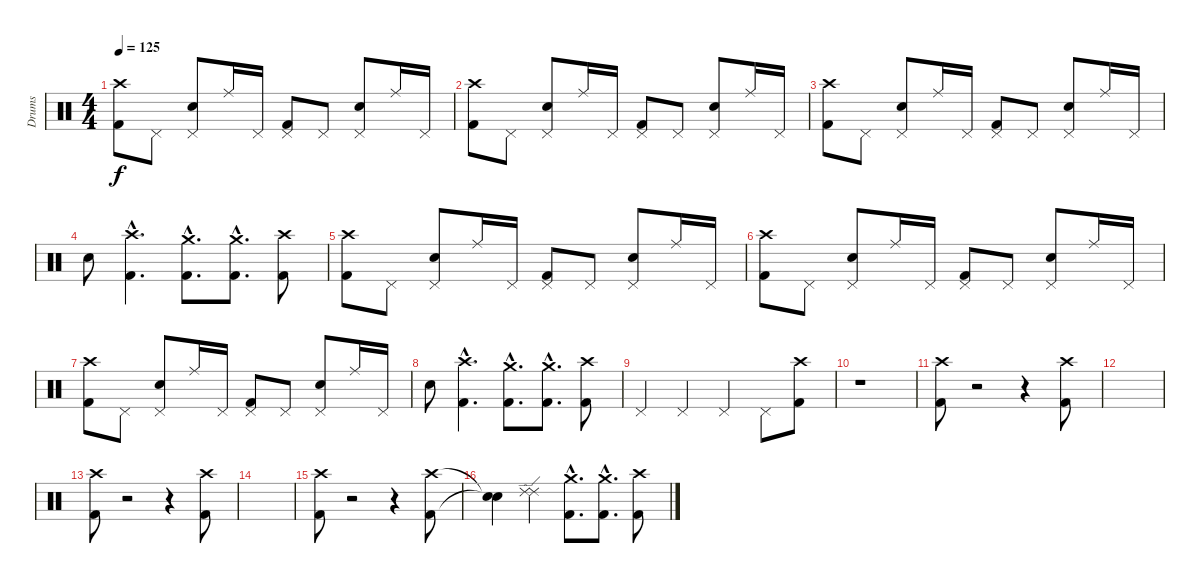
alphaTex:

\track ("Drums" "Drums") {instrument percussion}
\staff {score}
\articulation defaults
\ts (4 4)
\tempo 125
\clef neutral
\ks c
("Crash high (hit)" "Kick (hit) 2").8{dy f} "Pedal Hi-Hat (hit)".8 ("Pedal Hi-Hat (hit)" "Snare (hit) 2").8 "Ride (middle)".16 "Pedal Hi-Hat (hit)".16 ("Pedal Hi-Hat (hit)" "Kick (hit) 2").8 "Pedal Hi-Hat (hit)".8 ("Pedal Hi-Hat (hit)" "Snare (hit) 2").8 "Ride (middle)".16 "Pedal Hi-Hat (hit)".16 |
("Crash high (hit)" "Kick (hit) 2").8 "Pedal Hi-Hat (hit)".8 ("Pedal Hi-Hat (hit)" "Snare (hit) 2").8 "Ride (middle)".16 "Pedal Hi-Hat (hit)".16 ("Pedal Hi-Hat (hit)" "Kick (hit) 2").8 "Pedal Hi-Hat (hit)".8 ("Pedal Hi-Hat (hit)" "Snare (hit) 2").8 "Ride (middle)".16 "Pedal Hi-Hat (hit)".16 |
("Crash high (hit)" "Kick (hit) 2").8 "Pedal Hi-Hat (hit)".8 ("Pedal Hi-Hat (hit)" "Snare (hit) 2").8 "Ride (middle)".16 "Pedal Hi-Hat (hit)".16 ("Pedal Hi-Hat (hit)" "Kick (hit) 2").8 "Pedal Hi-Hat (hit)".8 ("Pedal Hi-Hat (hit)" "Snare (hit) 2").8 "Ride (middle)".16 "Pedal Hi-Hat (hit)".16 |
"Snare (hit) 2".8 ("Crash high (hit)"{hac} "Kick (hit) 2"{hac}).4{d} ("Crash medium (hit)"{hac} "Kick (hit) 2"{hac}).8{d} ("Crash medium (hit)"{hac} "Kick (hit) 2"{hac}).8{d} ("Crash high (hit)" "Kick (hit) 2").8 |
("Crash high (hit)" "Kick (hit) 2").8 "Pedal Hi-Hat (hit)".8 ("Pedal Hi-Hat (hit)" "Snare (hit) 2").8 "Ride (middle)".16 "Pedal Hi-Hat (hit)".16 ("Pedal Hi-Hat (hit)" "Kick (hit) 2").8 "Pedal Hi-Hat (hit)".8 ("Pedal Hi-Hat (hit)" "Snare (hit) 2").8 "Ride (middle)".16 "Pedal Hi-Hat (hit)".16 |
("Crash high (hit)" "Kick (hit) 2").8 "Pedal Hi-Hat (hit)".8 ("Pedal Hi-Hat (hit)" "Snare (hit) 2").8 "Ride (middle)".16 "Pedal Hi-Hat (hit)".16 ("Pedal Hi-Hat (hit)" "Kick (hit) 2").8 "Pedal Hi-Hat (hit)".8 ("Pedal Hi-Hat (hit)" "Snare (hit) 2").8 "Ride (middle)".16 "Pedal Hi-Hat (hit)".16 |
("Crash high (hit)" "Kick (hit) 2").8 "Pedal Hi-Hat (hit)".8 ("Pedal Hi-Hat (hit)" "Snare (hit) 2").8 "Ride (middle)".16 "Pedal Hi-Hat (hit)".16 ("Pedal Hi-Hat (hit)" "Kick (hit) 2").8 "Pedal Hi-Hat (hit)".8 ("Pedal Hi-Hat (hit)" "Snare (hit) 2").8 "Ride (middle)".16 "Pedal Hi-Hat (hit)".16 |
"Snare (hit) 2".8 ("Crash high (hit)"{hac} "Kick (hit) 2"{hac}).4{d} ("Kick (hit) 2"{hac} "Crash medium (hit)"{hac}).8{d} ("Kick (hit) 2"{hac} "Crash medium (hit)"{hac}).8{d} ("Crash high (hit)" "Kick (hit) 2").8 |
"Pedal Hi-Hat (hit)".4 "Pedal Hi-Hat (hit)".4 "Pedal Hi-Hat (hit)".4 "Pedal Hi-Hat (hit)".8 ("Crash high (hit)" "Kick (hit) 2").8 |
r.1 |
("Crash high (hit)" "Kick (hit) 2").8 r.2 r.4 ("Crash high (hit)" "Kick (hit) 2").8 |
|
("Crash high (hit)" "Kick (hit) 2").8 r.2 r.4 ("Crash high (hit)" "Kick (hit) 2").8 |
|
("Crash high (hit)" "Kick (hit) 2").8 r.2 r.4 ("Crash high (hit)" "Kick (hit) 2").8 |
("Snare (hit)"{t} "Snare (hit)"{t}).4 ("Ride (edge) 2" "Ride (edge) 2").4 ("Kick (hit) 2"{hac} "Crash medium (hit)"{hac}).8{d} ("Kick (hit) 2"{hac} "Crash medium (hit)"{hac}).8{d} ("Crash high (hit)" "Kick (hit) 2").8
